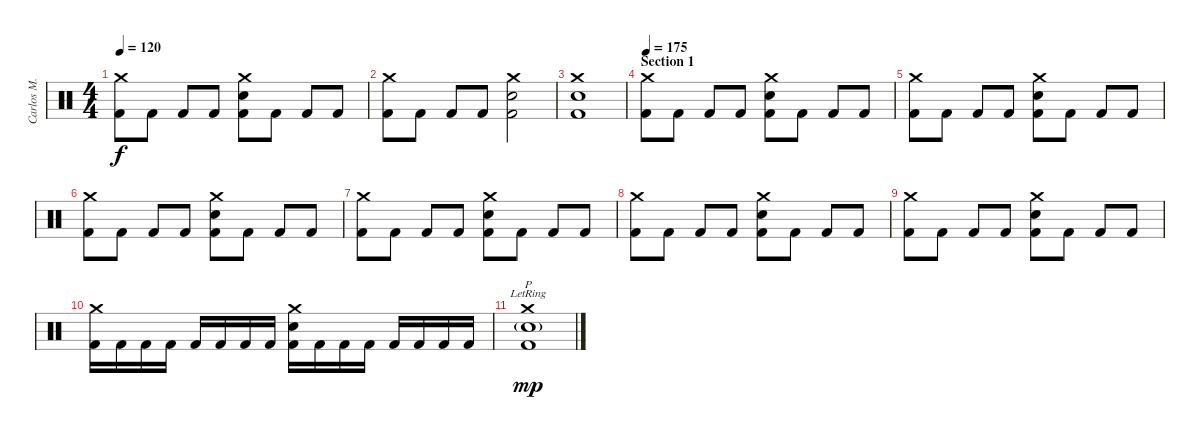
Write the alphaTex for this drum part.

\track ("Carlos M." "Carlos M.") {instrument percussion}
\staff {score}
\articulation defaults
\ts (4 4)
\tempo 120
\clef neutral
\ks c
("Crash medium (hit)" "Kick (hit) 2").8{dy f} "Kick (hit) 2".8 "Kick (hit) 2".8 "Kick (hit) 2".8 ("Crash medium (hit)" "Electric Snare (hit)" "Kick (hit) 2").8 "Kick (hit) 2".8 "Kick (hit) 2".8 "Kick (hit) 2".8 |
("Crash medium (hit)" "Kick (hit) 2").8 "Kick (hit) 2".8 "Kick (hit) 2".8 "Kick (hit) 2".8 ("Crash medium (hit)" "Electric Snare (hit)" "Kick (hit) 2").2 |
("Crash medium (hit)" "Electric Snare (hit)" "Kick (hit) 2").1 |
\section ("" "Section 1")
\tempo 175
("Crash medium (hit)" "Kick (hit) 2").8 "Kick (hit) 2".8 "Kick (hit) 2".8 "Kick (hit) 2".8 ("Electric Snare (hit)" "Crash medium (hit)" "Kick (hit) 2").8 "Kick (hit) 2".8 "Kick (hit) 2".8 "Kick (hit) 2".8 |
("Crash medium (hit)" "Kick (hit) 2").8 "Kick (hit) 2".8 "Kick (hit) 2".8 "Kick (hit) 2".8 ("Crash medium (hit)" "Electric Snare (hit)" "Kick (hit) 2").8 "Kick (hit) 2".8 "Kick (hit) 2".8 "Kick (hit) 2".8 |
("Crash medium (hit)" "Kick (hit) 2").8 "Kick (hit) 2".8 "Kick (hit) 2".8 "Kick (hit) 2".8 ("Electric Snare (hit)" "Crash medium (hit)" "Kick (hit) 2").8 "Kick (hit) 2".8 "Kick (hit) 2".8 "Kick (hit) 2".8 |
("Crash medium (hit)" "Kick (hit) 2").8 "Kick (hit) 2".8 "Kick (hit) 2".8 "Kick (hit) 2".8 ("Electric Snare (hit)" "Crash medium (hit)" "Kick (hit) 2").8 "Kick (hit) 2".8 "Kick (hit) 2".8 "Kick (hit) 2".8 |
("Crash medium (hit)" "Kick (hit) 2").8 "Kick (hit) 2".8 "Kick (hit) 2".8 "Kick (hit) 2".8 ("Electric Snare (hit)" "Crash medium (hit)" "Kick (hit) 2").8 "Kick (hit) 2".8 "Kick (hit) 2".8 "Kick (hit) 2".8 |
("Crash medium (hit)" "Kick (hit) 2").8 "Kick (hit) 2".8 "Kick (hit) 2".8 "Kick (hit) 2".8 ("Electric Snare (hit)" "Crash medium (hit)" "Kick (hit) 2").8 "Kick (hit) 2".8 "Kick (hit) 2".8 "Kick (hit) 2".8 |
("Crash medium (hit)" "Kick (hit) 2").16 "Kick (hit) 2".16 "Kick (hit) 2".16 "Kick (hit) 2".16 "Kick (hit) 2".16 "Kick (hit) 2".16 "Kick (hit) 2".16 "Kick (hit) 2".16 ("Crash medium (hit)" "Electric Snare (hit)" "Kick (hit) 2").16 "Kick (hit) 2".16 "Kick (hit) 2".16 "Kick (hit) 2".16 "Kick (hit) 2".16 "Kick (hit) 2".16 "Kick (hit) 2".16 "Kick (hit) 2".16 |
("Electric Snare (hit)"{g lr} "Crash medium (hit)" "Kick (hit) 2"{lr}).1{p dy mp}
